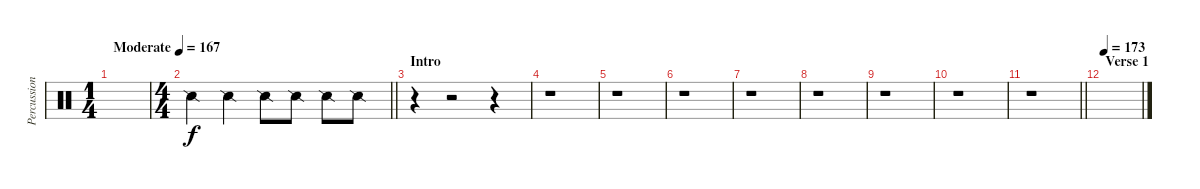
\track ("Percussion" "Percussion") {instrument percussion}
\staff {score}
\articulation defaults
\ts (1 4)
\tempo (167 "Moderate")
\clef neutral
\ks c
|
\ts (4 4)
\barLineRight lightlight "Snare (side stick) 2".4 "Snare (side stick) 2".4 "Snare (side stick) 2".8 "Snare (side stick) 2".8 "Snare (side stick) 2".8 "Snare (side stick) 2".8
|
\section ("" "Intro")
r.4 r.2 r.4 |
r.1 |
r.1 |
r.1 |
r.1 |
r.1 |
r.1 |
r.1 |
\barLineRight lightlight
r.1 |
\section ("" "Verse 1")
\tempo 173
